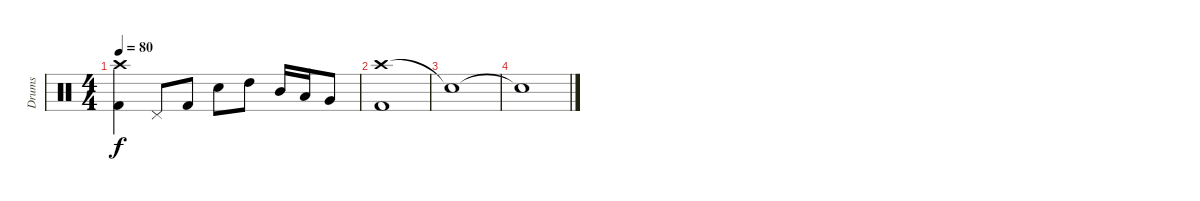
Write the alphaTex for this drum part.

\track ("Drums" "Drums") {instrument percussion}
\staff {score}
\articulation defaults
\ts (4 4)
\tempo 80
\clef neutral
\ks c
("Crash high (hit)" "Kick (hit) 2").4{dy f} "Pedal Hi-Hat (hit)".8 "Kick (hit) 2".8 "Snare (hit) 2".8 "High Tom (hit)".8 "Mid Tom (hit)".16 "Low Tom (hit)".16 "Very Low Tom (hit)".8 |
("Crash high (hit)" "Kick (hit) 2").1 |
"Snare (hit)"{t}.1 |
"Snare (hit)"{t}.1
